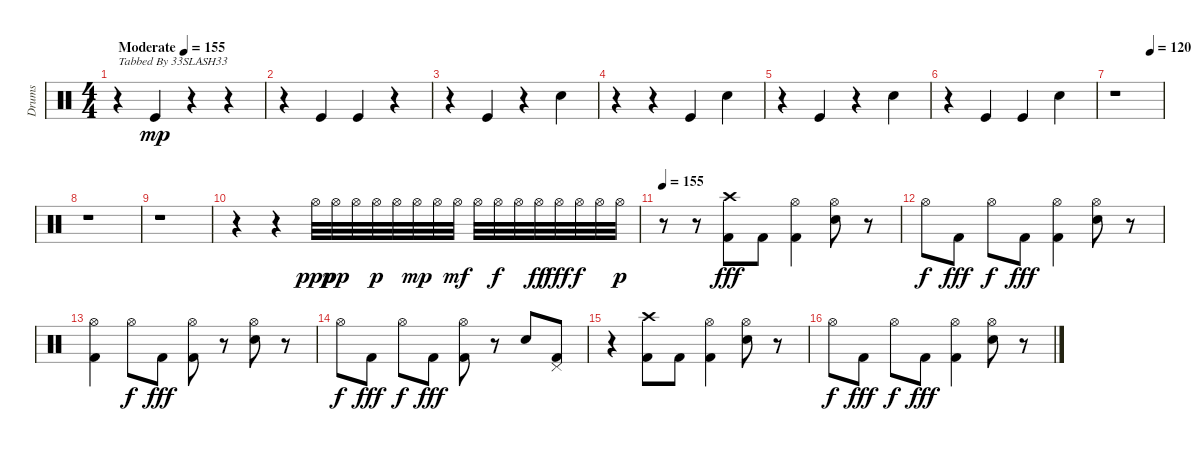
\track ("Drums" "Drums") {instrument percussion}
\staff {score}
\articulation defaults
\ts (4 4)
\tempo (155 "Moderate")
\clef neutral
\ks c
r.4{txt "Tabbed By 33SLASH33" dy mp} "Kick (hit)".4 r.4 r.4 |
r.4 "Kick (hit)".4 "Kick (hit)".4 r.4 |
r.4 "Kick (hit)".4 r.4 "Snare (hit) 2".4 |
r.4 r.4 "Kick (hit)".4 "Snare (hit) 2".4 |
r.4 "Kick (hit)".4 r.4 "Snare (hit) 2".4 |
r.4 "Kick (hit)".4 "Kick (hit)".4 "Snare (hit) 2".4 |
\tempo (120 0.75)
r.1 |
r.1 |
r.1 |
r.4 r.4 "Hi-Hat (open)".32{dy ppp} "Hi-Hat (open)".32{dy pp} "Hi-Hat (open)".32 "Hi-Hat (open)".32{dy p} "Hi-Hat (open)".32 "Hi-Hat (open)".32{dy mp} "Hi-Hat (open)".32 "Hi-Hat (open)".32{dy mf} "Hi-Hat (open)".32 "Hi-Hat (open)".32{dy f} "Hi-Hat (open)".32 "Hi-Hat (open)".32{dy ff} "Hi-Hat (open)".32{dy fff} "Hi-Hat (open)".32{dy f} "Hi-Hat (open)".32 "Hi-Hat (open)".32{dy p} |
\tempo 155
r.8 r.8 ("Crash high (hit)" "Kick (hit) 2").8{dy fff} "Kick (hit) 2".8 ("Hi-Hat (open)" "Kick (hit) 2").4 ("Hi-Hat (open)" "Snare (hit) 2").8 r.8 |
"Hi-Hat (open)".8{dy f} "Kick (hit) 2".8{dy fff} "Hi-Hat (open)".8{dy f} "Kick (hit) 2".8{dy fff} ("Hi-Hat (open)" "Kick (hit) 2").4 ("Hi-Hat (open)" "Snare (hit) 2").8 r.8 |
("Hi-Hat (open)" "Kick (hit) 2").4 "Hi-Hat (open)".8{dy f} "Kick (hit) 2".8{dy fff} ("Hi-Hat (open)" "Kick (hit) 2").8 r.8 ("Hi-Hat (open)" "Snare (hit) 2").8 r.8 |
"Hi-Hat (open)".8{dy f} "Kick (hit) 2".8{dy fff} "Hi-Hat (open)".8{dy f} "Kick (hit) 2".8{dy fff} ("Hi-Hat (open)" "Kick (hit) 2").8 r.8 "Snare (hit) 2".8 ("Pedal Hi-Hat (hit)" "Kick (hit) 2").8 |
r.4 ("Crash high (hit)" "Kick (hit) 2").8 "Kick (hit) 2".8 ("Hi-Hat (open)" "Kick (hit) 2").4 ("Hi-Hat (open)" "Snare (hit) 2").8 r.8 |
"Hi-Hat (open)".8{dy f} "Kick (hit) 2".8{dy fff} "Hi-Hat (open)".8{dy f} "Kick (hit) 2".8{dy fff} ("Hi-Hat (open)" "Kick (hit) 2").4 ("Hi-Hat (open)" "Snare (hit) 2").8 r.8
